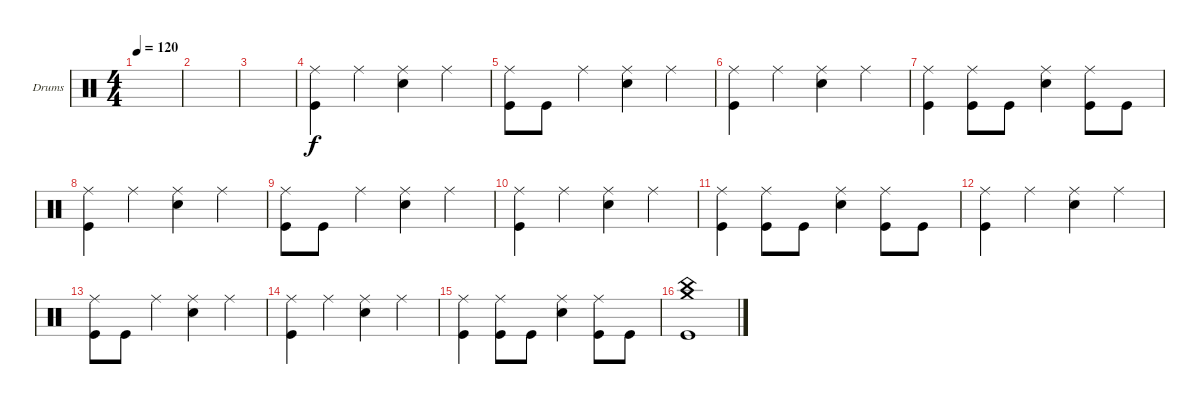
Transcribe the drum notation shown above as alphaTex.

\defaultSystemsLayout 4
\bracketExtendMode groupsimilarinstruments
\firstSystemTrackNameOrientation horizontal
\otherSystemsTrackNameOrientation horizontal
\track ("Drumkit" "Drums") {instrument percussion}
\staff {score}
\articulation defaults
\ts (4 4)
\tempo 120
\clef neutral
\ks c
|
|
|
("Ride (middle)" "Kick (hit)").4 "Ride (middle)".4 ("Ride (middle)" "Snare (hit) 2").4 "Ride (middle)".4 |
("Ride (middle)" "Kick (hit)").8 "Kick (hit)".8 "Ride (middle)".4 ("Ride (middle)" "Snare (hit) 2").4 "Ride (middle)".4 |
("Ride (middle)" "Kick (hit)").4 "Ride (middle)".4 ("Ride (middle)" "Snare (hit) 2").4 "Ride (middle)".4 |
("Ride (middle)" "Kick (hit)").4 ("Ride (middle)" "Kick (hit)").8 "Kick (hit)".8 ("Ride (middle)" "Snare (hit) 2").4 ("Ride (middle)" "Kick (hit)").8 "Kick (hit)".8 |
("Ride (middle)" "Kick (hit)").4 "Ride (middle)".4 ("Ride (middle)" "Snare (hit) 2").4 "Ride (middle)".4 |
("Ride (middle)" "Kick (hit)").8 "Kick (hit)".8 "Ride (middle)".4 ("Ride (middle)" "Snare (hit) 2").4 "Ride (middle)".4 |
("Ride (middle)" "Kick (hit)").4 "Ride (middle)".4 ("Ride (middle)" "Snare (hit) 2").4 "Ride (middle)".4 |
("Ride (middle)" "Kick (hit)").4 ("Ride (middle)" "Kick (hit)").8 "Kick (hit)".8 ("Ride (middle)" "Snare (hit) 2").4 ("Ride (middle)" "Kick (hit)").8 "Kick (hit)".8 |
("Ride (middle)" "Kick (hit)").4 "Ride (middle)".4 ("Ride (middle)" "Snare (hit) 2").4 "Ride (middle)".4 |
("Ride (middle)" "Kick (hit)").8 "Kick (hit)".8 "Ride (middle)".4 ("Ride (middle)" "Snare (hit) 2").4 "Ride (middle)".4 |
("Ride (middle)" "Kick (hit)").4 "Ride (middle)".4 ("Ride (middle)" "Snare (hit) 2").4 "Ride (middle)".4 |
("Ride (middle)" "Kick (hit)").4 ("Ride (middle)" "Kick (hit)").8 "Kick (hit)".8 ("Ride (middle)" "Snare (hit) 2").4 ("Ride (middle)" "Kick (hit)").8 "Kick (hit)".8 |
("Crash medium (hit)" "China (hit)" "Kick (hit)").1
